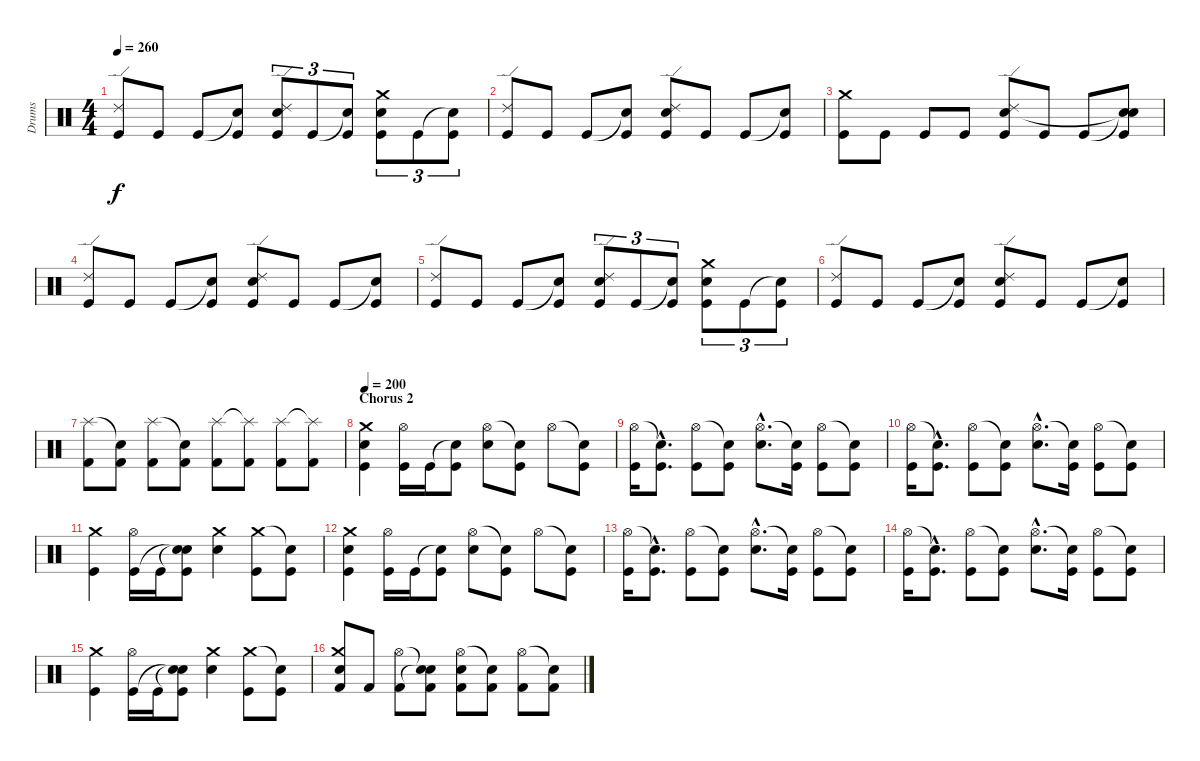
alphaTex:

\track ("Drums" "Drums") {instrument percussion}
\staff {score}
\articulation defaults
\ts (4 4)
\tempo 260
\clef neutral
\ks c
("Ride (edge) 2" "Kick (hit)").8{dy f} "Kick (hit)".8 "Kick (hit)".8 ("Snare (hit)"{t} "Kick (hit)").8 ("Ride (edge) 2" "Electric Snare (hit)" "Kick (hit)").8{tu (3 2)} "Kick (hit)".8{tu (3 2)} ("Snare (hit)"{t} "Kick (hit)").8{tu (3 2)} ("Crash medium (hit)" "Electric Snare (hit)" "Kick (hit)").8{tu (3 2)} "Kick (hit)".8{tu (3 2)} ("Snare (hit)"{t} "Kick (hit)").8{tu (3 2)} |
("Ride (edge) 2" "Kick (hit)").8 "Kick (hit)".8 "Kick (hit)".8 ("Snare (hit)"{t} "Kick (hit)").8 ("Ride (edge) 2" "Electric Snare (hit)" "Kick (hit)").8 "Kick (hit)".8 "Kick (hit)".8 ("Snare (hit)"{t} "Kick (hit)").8 |
("Crash medium (hit)" "Kick (hit)").8 "Kick (hit)".8 "Kick (hit)".8 "Kick (hit)".8 ("Ride (edge) 2" "Electric Snare (hit)" "Kick (hit)").8 "Kick (hit)".8 "Kick (hit)".8 ("Snare (hit)"{t} "Snare (hit)"{t} "Kick (hit)").8 |
("Ride (edge) 2" "Kick (hit)").8 "Kick (hit)".8 "Kick (hit)".8 ("Snare (hit)"{t} "Kick (hit)").8 ("Ride (edge) 2" "Electric Snare (hit)" "Kick (hit)").8 "Kick (hit)".8 "Kick (hit)".8 ("Snare (hit)"{t} "Kick (hit)").8 |
("Ride (edge) 2" "Kick (hit)").8 "Kick (hit)".8 "Kick (hit)".8 ("Snare (hit)"{t} "Kick (hit)").8 ("Ride (edge) 2" "Electric Snare (hit)" "Kick (hit)").8{tu (3 2)} "Kick (hit)".8{tu (3 2)} ("Snare (hit)"{t} "Kick (hit)").8{tu (3 2)} ("Crash medium (hit)" "Electric Snare (hit)" "Kick (hit)").8{tu (3 2)} "Kick (hit)".8{tu (3 2)} ("Snare (hit)"{t} "Kick (hit)").8{tu (3 2)} |
("Ride (edge) 2" "Kick (hit)").8 "Kick (hit)".8 "Kick (hit)".8 ("Snare (hit)"{t} "Kick (hit)").8 ("Ride (edge) 2" "Electric Snare (hit)" "Kick (hit)").8 "Kick (hit)".8 "Kick (hit)".8 ("Snare (hit)"{t} "Kick (hit)").8 |
("Splash (hit)" "Kick (hit) 2").8 ("Snare (hit)"{t} "Kick (hit) 2").8 ("Splash (hit)" "Kick (hit) 2").8 ("Snare (hit)"{t} "Kick (hit) 2").8 ("Splash (hit)" "Kick (hit) 2").8 ("Splash (hit)"{t} "Kick (hit) 2").8 ("Splash (hit)" "Kick (hit) 2").8 ("Splash (hit)"{t} "Kick (hit) 2").8 |
\section ("" "Chorus 2")
\tempo 200
("Crash medium (hit)" "Electric Snare (hit)" "Kick (hit)").4 ("Hi-Hat (open)" "Kick (hit)").16 "Kick (hit)".16 ("Snare (hit)"{t} "Kick (hit)").8 ("Hi-Hat (open)" "Electric Snare (hit)").8 ("Snare (hit)"{t} "Kick (hit)").8 "Hi-Hat (open)".8 ("Snare (hit)"{t} "Kick (hit)").8 |
("Hi-Hat (open)" "Kick (hit)").16 ("Snare (hit)"{hac t} "Kick (hit)"{hac}).8{d} ("Hi-Hat (open)" "Kick (hit)").8 ("Snare (hit)"{t} "Kick (hit)").8 ("Hi-Hat (open)"{hac} "Electric Snare (hit)"{hac}).8{d} ("Snare (hit)"{t} "Kick (hit)").16 ("Hi-Hat (open)" "Kick (hit)").8 ("Snare (hit)"{t} "Kick (hit)").8 |
("Hi-Hat (open)" "Kick (hit)").16 ("Snare (hit)"{hac t} "Kick (hit)"{hac}).8{d} ("Hi-Hat (open)" "Kick (hit)").8 ("Snare (hit)"{t} "Kick (hit)").8 ("Hi-Hat (open)"{hac} "Electric Snare (hit)"{hac}).8{d} ("Snare (hit)"{t} "Kick (hit)").16 ("Hi-Hat (open)" "Kick (hit)").8 ("Snare (hit)"{t} "Kick (hit)").8 |
("Crash medium (hit)" "Kick (hit)").4 ("Hi-Hat (open)" "Kick (hit)").16 "Kick (hit)".16 ("Snare (hit)"{t} "Snare (hit)"{t} "Kick (hit)").8 ("Crash medium (hit)" "Electric Snare (hit)").4 ("Crash medium (hit)" "Kick (hit)").8 ("Snare (hit)"{t} "Kick (hit)").8 |
("Crash medium (hit)" "Electric Snare (hit)" "Kick (hit)").4 ("Hi-Hat (open)" "Kick (hit)").16 "Kick (hit)".16 ("Snare (hit)"{t} "Kick (hit)").8 ("Hi-Hat (open)" "Electric Snare (hit)").8 ("Snare (hit)"{t} "Kick (hit)").8 "Hi-Hat (open)".8 ("Snare (hit)"{t} "Kick (hit)").8 |
("Hi-Hat (open)" "Kick (hit)").16 ("Snare (hit)"{hac t} "Kick (hit)"{hac}).8{d} ("Hi-Hat (open)" "Kick (hit)").8 ("Snare (hit)"{t} "Kick (hit)").8 ("Hi-Hat (open)"{hac} "Electric Snare (hit)"{hac}).8{d} ("Snare (hit)"{t} "Kick (hit)").16 ("Hi-Hat (open)" "Kick (hit)").8 ("Snare (hit)"{t} "Kick (hit)").8 |
("Hi-Hat (open)" "Kick (hit)").16 ("Snare (hit)"{hac t} "Kick (hit)"{hac}).8{d} ("Hi-Hat (open)" "Kick (hit)").8 ("Snare (hit)"{t} "Kick (hit)").8 ("Hi-Hat (open)"{hac} "Electric Snare (hit)"{hac}).8{d} ("Snare (hit)"{t} "Kick (hit)").16 ("Hi-Hat (open)" "Kick (hit)").8 ("Snare (hit)"{t} "Kick (hit)").8 |
("Crash medium (hit)" "Kick (hit)").4 ("Hi-Hat (open)" "Kick (hit)").16 "Kick (hit)".16 ("Snare (hit)"{t} "Snare (hit)"{t} "Kick (hit)").8 ("Crash medium (hit)" "Electric Snare (hit)").4 ("Crash medium (hit)" "Kick (hit)").8 ("Snare (hit)"{t} "Kick (hit)").8 |
("Crash medium (hit)" "Electric Snare (hit)" "Kick (hit) 2").8 "Kick (hit) 2".8 ("Hi-Hat (open)" "Kick (hit) 2").8 ("Snare (hit)"{t} "Snare (hit)"{t} "Kick (hit) 2").8 ("Hi-Hat (open)" "Electric Snare (hit)" "Kick (hit) 2").8 ("Snare (hit)"{t} "Kick (hit) 2").8 ("Hi-Hat (open)" "Kick (hit) 2").8 ("Snare (hit)"{t} "Kick (hit) 2").8
